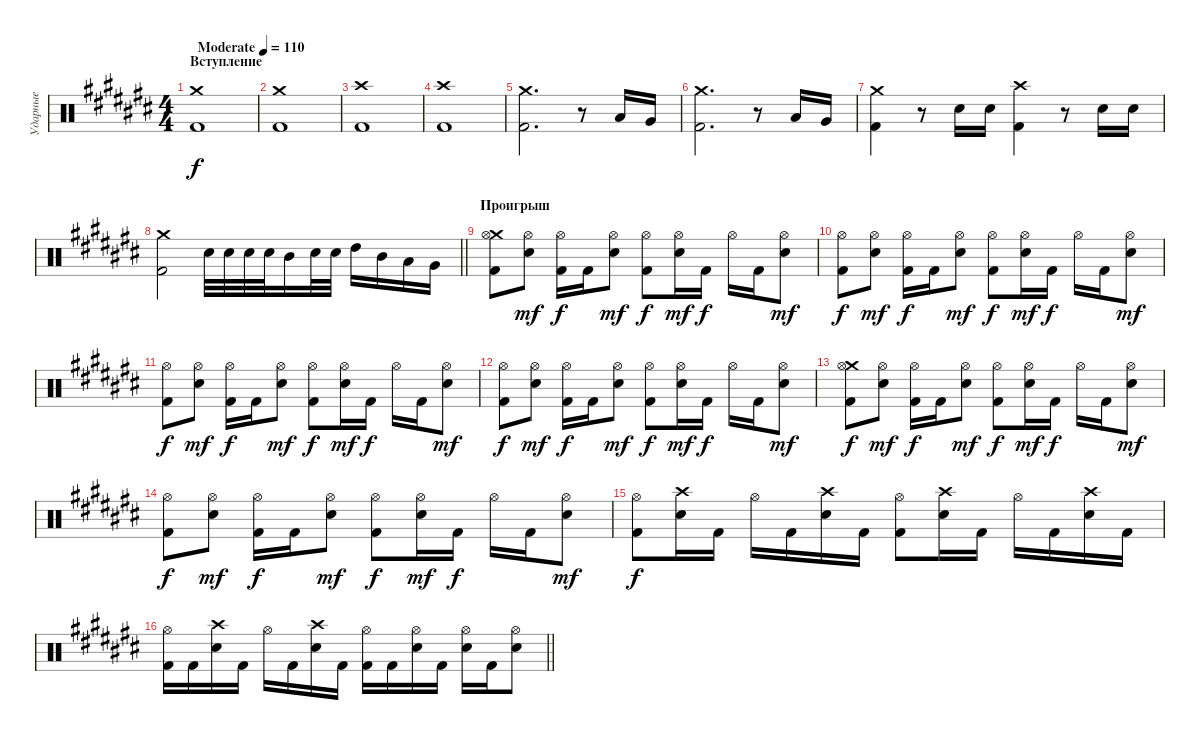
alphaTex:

\track ("Ударные" "Ударные") {instrument percussion}
\staff {score}
\articulation defaults
\ts (4 4)
\section ("" "Вступление")
\tempo (110 "Moderate")
\clef neutral
\ks a#minor
("Crash medium (hit)" "Kick (hit) 2").1{dy f} |
("Crash medium (hit)" "Kick (hit) 2").1 |
("Crash high (hit)" "Kick (hit) 2").1 |
("Crash high (hit)" "Kick (hit) 2").1 |
("Crash medium (hit)" "Kick (hit) 2").2{d} r.8 "Low Tom (hit)".16 "Very Low Tom (hit)".16 |
("Crash medium (hit)" "Kick (hit) 2").2{d} r.8 "Low Tom (hit)".16 "Very Low Tom (hit)".16 |
("Crash medium (hit)" "Kick (hit) 2").4 r.8 "Electric Snare (hit)".16 "Electric Snare (hit)".16 ("Crash high (hit)" "Kick (hit) 2").4 r.8 "Electric Snare (hit)".16 "Electric Snare (hit)".16 |
\barLineRight lightlight
("Crash medium (hit)" "Kick (hit) 2").2 "Electric Snare (hit)".32 "Electric Snare (hit)".32 "Electric Snare (hit)".32 "Electric Snare (hit)".32 "Mid Tom (hit)".16 "Electric Snare (hit)".32 "Electric Snare (hit)".32 "High Tom (hit)".16 "Mid Tom (hit)".16 "Low Tom (hit)".16 "Very Low Tom (hit)".16 |
\section ("" "Проигрыш")
("Crash medium (hit)" "Kick (hit) 2" "Hi-Hat (open)").8 ("Electric Snare (hit)" "Hi-Hat (open)").8{dy mf} ("Kick (hit) 2" "Hi-Hat (open)").16{dy f} "Kick (hit) 2".16 ("Electric Snare (hit)" "Hi-Hat (open)").8{dy mf} ("Kick (hit) 2" "Hi-Hat (open)").8{dy f} ("Electric Snare (hit)" "Hi-Hat (open)").16{dy mf} "Kick (hit) 2".16{dy f} "Hi-Hat (open)".16 "Kick (hit) 2".16 ("Electric Snare (hit)" "Hi-Hat (open)").8{dy mf} |
("Kick (hit) 2" "Hi-Hat (open)").8{dy f} ("Electric Snare (hit)" "Hi-Hat (open)").8{dy mf} ("Kick (hit) 2" "Hi-Hat (open)").16{dy f} "Kick (hit) 2".16 ("Electric Snare (hit)" "Hi-Hat (open)").8{dy mf} ("Kick (hit) 2" "Hi-Hat (open)").8{dy f} ("Electric Snare (hit)" "Hi-Hat (open)").16{dy mf} "Kick (hit) 2".16{dy f} "Hi-Hat (open)".16 "Kick (hit) 2".16 ("Electric Snare (hit)" "Hi-Hat (open)").8{dy mf} |
("Kick (hit) 2" "Hi-Hat (open)").8{dy f} ("Electric Snare (hit)" "Hi-Hat (open)").8{dy mf} ("Kick (hit) 2" "Hi-Hat (open)").16{dy f} "Kick (hit) 2".16 ("Electric Snare (hit)" "Hi-Hat (open)").8{dy mf} ("Kick (hit) 2" "Hi-Hat (open)").8{dy f} ("Electric Snare (hit)" "Hi-Hat (open)").16{dy mf} "Kick (hit) 2".16{dy f} "Hi-Hat (open)".16 "Kick (hit) 2".16 ("Electric Snare (hit)" "Hi-Hat (open)").8{dy mf} |
("Kick (hit) 2" "Hi-Hat (open)").8{dy f} ("Electric Snare (hit)" "Hi-Hat (open)").8{dy mf} ("Kick (hit) 2" "Hi-Hat (open)").16{dy f} "Kick (hit) 2".16 ("Electric Snare (hit)" "Hi-Hat (open)").8{dy mf} ("Kick (hit) 2" "Hi-Hat (open)").8{dy f} ("Electric Snare (hit)" "Hi-Hat (open)").16{dy mf} "Kick (hit) 2".16{dy f} "Hi-Hat (open)".16 "Kick (hit) 2".16 ("Electric Snare (hit)" "Hi-Hat (open)").8{dy mf} |
("Crash medium (hit)" "Kick (hit) 2" "Hi-Hat (open)").8{dy f} ("Electric Snare (hit)" "Hi-Hat (open)").8{dy mf} ("Kick (hit) 2" "Hi-Hat (open)").16{dy f} "Kick (hit) 2".16 ("Electric Snare (hit)" "Hi-Hat (open)").8{dy mf} ("Kick (hit) 2" "Hi-Hat (open)").8{dy f} ("Electric Snare (hit)" "Hi-Hat (open)").16{dy mf} "Kick (hit) 2".16{dy f} "Hi-Hat (open)".16 "Kick (hit) 2".16 ("Electric Snare (hit)" "Hi-Hat (open)").8{dy mf} |
("Kick (hit) 2" "Hi-Hat (open)").8{dy f} ("Electric Snare (hit)" "Hi-Hat (open)").8{dy mf} ("Kick (hit) 2" "Hi-Hat (open)").16{dy f} "Kick (hit) 2".16 ("Electric Snare (hit)" "Hi-Hat (open)").8{dy mf} ("Kick (hit) 2" "Hi-Hat (open)").8{dy f} ("Electric Snare (hit)" "Hi-Hat (open)").16{dy mf} "Kick (hit) 2".16{dy f} "Hi-Hat (open)".16 "Kick (hit) 2".16 ("Electric Snare (hit)" "Hi-Hat (open)").8{dy mf} |
("Kick (hit) 2" "Hi-Hat (open)").8{dy f} ("Electric Snare (hit)" "Crash high (hit)").16 "Kick (hit) 2".16 "Hi-Hat (open)".16 "Kick (hit) 2".16 ("Electric Snare (hit)" "Crash high (hit)").16 "Kick (hit) 2".16 ("Kick (hit) 2" "Hi-Hat (open)").8 ("Electric Snare (hit)" "Crash high (hit)").16 "Kick (hit) 2".16 "Hi-Hat (open)".16 "Kick (hit) 2".16 ("Electric Snare (hit)" "Crash high (hit)").16 "Kick (hit) 2".16 |
\barLineRight lightlight
("Kick (hit) 2" "Hi-Hat (open)").16 "Kick (hit) 2".16 ("Electric Snare (hit)" "Crash high (hit)").16 "Kick (hit) 2".16 "Hi-Hat (open)".16 "Kick (hit) 2".16 ("Electric Snare (hit)" "Crash high (hit)").16 "Kick (hit) 2".16 ("Kick (hit) 2" "Hi-Hat (open)").16 "Kick (hit) 2".16 ("Electric Snare (hit)" "Hi-Hat (open)").16 "Kick (hit) 2".16 ("Electric Snare (hit)" "Hi-Hat (open)").16 "Kick (hit) 2".16 ("Electric Snare (hit)" "Hi-Hat (open)").8
